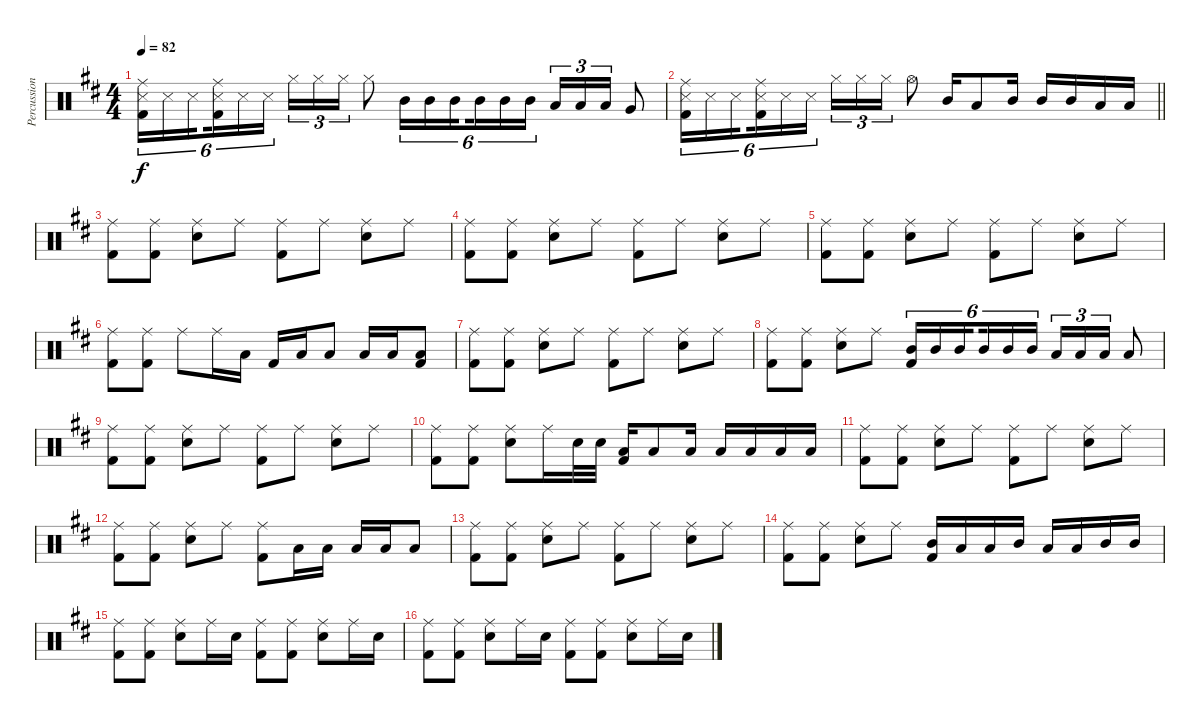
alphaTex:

\track ("Percussion" "Percussion") {instrument percussion}
\staff {score}
\articulation defaults
\ts (4 4)
\tempo 82
\clef neutral
\ks d
("Snare (side stick) 3" "Kick (hit) 2" "Ride (middle)").16{tu (6 4) dy f} "Snare (side stick) 3".16{tu (6 4)} "Snare (side stick) 3".16{tu (6 4) beam splitsecondary} ("Snare (side stick) 3" "Kick (hit) 2" "Ride (middle)").16{tu (6 4)} "Snare (side stick) 3".16{tu (6 4)} "Snare (side stick) 3".16{tu (6 4)} "Hi-Hat (closed)".16{tu (3 2)} "Hi-Hat (closed)".16{tu (3 2)} "Hi-Hat (closed)".16{tu (3 2)} "Hi-Hat (closed)".8 "Mid Tom (hit)".16{tu (6 4)} "Mid Tom (hit)".16{tu (6 4)} "Mid Tom (hit)".16{tu (6 4) beam splitsecondary} "Mid Tom (hit)".16{tu (6 4)} "Mid Tom (hit)".16{tu (6 4)} "Mid Tom (hit)".16{tu (6 4)} "Low Tom (hit)".16{tu (3 2)} "Low Tom (hit)".16{tu (3 2)} "Low Tom (hit)".16{tu (3 2)} "Very Low Tom (hit)".8 |
\barLineRight lightlight
("Snare (side stick) 3" "Kick (hit) 2" "Ride (middle)").16{tu (6 4)} "Snare (side stick) 3".16{tu (6 4)} "Snare (side stick) 3".16{tu (6 4) beam splitsecondary} ("Snare (side stick) 3" "Kick (hit) 2" "Ride (middle)").16{tu (6 4)} "Snare (side stick) 3".16{tu (6 4)} "Snare (side stick) 3".16{tu (6 4)} "Hi-Hat (closed)".16{tu (3 2)} "Hi-Hat (closed)".16{tu (3 2)} "Hi-Hat (closed)".16{tu (3 2)} "Hi-Hat (open)".8 "Mid Tom (hit)".16 "Low Floor Tom (hit)".8 "Mid Tom (hit)".16 "Mid Tom (hit)".16 "Mid Tom (hit)".16 "Low Floor Tom (hit)".16 "Low Floor Tom (hit)".16 |
("Ride (middle)" "Kick (hit) 2").8 ("Ride (middle)" "Kick (hit) 2").8 ("Ride (middle)" "Snare (hit) 2").8 "Ride (middle)".8 ("Ride (middle)" "Kick (hit) 2").8 "Ride (middle)".8 ("Ride (middle)" "Snare (hit) 2").8 "Ride (middle)".8 |
("Ride (middle)" "Kick (hit) 2").8 ("Ride (middle)" "Kick (hit) 2").8 ("Ride (middle)" "Snare (hit) 2").8 "Ride (middle)".8 ("Ride (middle)" "Kick (hit) 2").8 "Ride (middle)".8 ("Ride (middle)" "Snare (hit) 2").8 "Ride (middle)".8 |
("Ride (middle)" "Kick (hit) 2").8 ("Ride (middle)" "Kick (hit) 2").8 ("Ride (middle)" "Snare (hit) 2").8 "Ride (middle)".8 ("Ride (middle)" "Kick (hit) 2").8 "Ride (middle)".8 ("Ride (middle)" "Snare (hit) 2").8 "Ride (middle)".8 |
("Ride (middle)" "Kick (hit) 2").8 ("Ride (middle)" "Kick (hit) 2").8 "Ride (middle)".8 "Ride (middle)".16 "Low Floor Tom (hit)".16 "Kick (hit) 2".16 "Low Floor Tom (hit)".16 "Low Floor Tom (hit)".8 "Low Floor Tom (hit)".16 "Low Floor Tom (hit)".16 ("Low Floor Tom (hit)" "Kick (hit) 2").8 |
("Ride (middle)" "Kick (hit) 2").8 ("Ride (middle)" "Kick (hit) 2").8 ("Ride (middle)" "Snare (hit) 2").8 "Ride (middle)".8 ("Ride (middle)" "Kick (hit) 2").8 "Ride (middle)".8 ("Ride (middle)" "Snare (hit) 2").8 "Ride (middle)".8 |
("Ride (middle)" "Kick (hit) 2").8 ("Ride (middle)" "Kick (hit) 2").8 ("Ride (middle)" "Snare (hit) 2").8 "Ride (middle)".8 ("Mid Tom (hit)" "Kick (hit) 2").16{tu (6 4)} "Mid Tom (hit)".16{tu (6 4)} "Mid Tom (hit)".16{tu (6 4) beam splitsecondary} "Mid Tom (hit)".16{tu (6 4)} "Mid Tom (hit)".16{tu (6 4)} "Mid Tom (hit)".16{tu (6 4)} "Low Floor Tom (hit)".16{tu (3 2)} "Low Floor Tom (hit)".16{tu (3 2)} "Low Floor Tom (hit)".16{tu (3 2)} "Low Floor Tom (hit)".8 |
("Ride (middle)" "Kick (hit) 2").8 ("Ride (middle)" "Kick (hit) 2").8 ("Ride (middle)" "Snare (hit) 2").8 "Ride (middle)".8 ("Ride (middle)" "Kick (hit) 2").8 "Ride (middle)".8 ("Ride (middle)" "Snare (hit) 2").8 "Ride (middle)".8 |
("Ride (middle)" "Kick (hit) 2").8 ("Ride (middle)" "Kick (hit) 2").8 ("Ride (middle)" "Snare (hit) 2").8 "Ride (middle)".16 "Snare (hit) 2".32 "Snare (hit) 2".32 ("Low Floor Tom (hit)" "Kick (hit) 2").16 "Low Floor Tom (hit)".8 "Low Floor Tom (hit)".16 "Low Floor Tom (hit)".16 "Low Floor Tom (hit)".16 "Low Floor Tom (hit)".16 "Low Floor Tom (hit)".16 |
("Ride (middle)" "Kick (hit) 2").8 ("Ride (middle)" "Kick (hit) 2").8 ("Ride (middle)" "Snare (hit) 2").8 "Ride (middle)".8 ("Ride (middle)" "Kick (hit) 2").8 "Ride (middle)".8 ("Ride (middle)" "Snare (hit) 2").8 "Ride (middle)".8 |
("Ride (middle)" "Kick (hit) 2").8 ("Ride (middle)" "Kick (hit) 2").8 ("Ride (middle)" "Snare (hit) 2").8 "Ride (middle)".8 ("Ride (middle)" "Kick (hit) 2").8 "Low Floor Tom (hit)".16 "Low Floor Tom (hit)".16 "Low Floor Tom (hit)".16 "Low Floor Tom (hit)".16 "Low Floor Tom (hit)".8 |
("Ride (middle)" "Kick (hit) 2").8 ("Ride (middle)" "Kick (hit) 2").8 ("Ride (middle)" "Snare (hit) 2").8 "Ride (middle)".8 ("Ride (middle)" "Kick (hit) 2").8 "Ride (middle)".8 ("Ride (middle)" "Snare (hit) 2").8 "Ride (middle)".8 |
("Ride (middle)" "Kick (hit) 2").8 ("Ride (middle)" "Kick (hit) 2").8 ("Ride (middle)" "Snare (hit) 2").8 "Ride (middle)".8 ("Mid Tom (hit)" "Kick (hit) 2").16 "Low Floor Tom (hit)".16 "Low Floor Tom (hit)".16 "Mid Tom (hit)".16 "Low Floor Tom (hit)".16 "Low Floor Tom (hit)".16 "Mid Tom (hit)".16 "Mid Tom (hit)".16 |
("Ride (middle)" "Kick (hit) 2").8 ("Ride (middle)" "Kick (hit) 2").8 ("Ride (middle)" "Snare (hit) 2").8 "Ride (middle)".16 "Snare (hit) 2".16 ("Ride (middle)" "Kick (hit) 2").8 ("Ride (middle)" "Kick (hit) 2").8 ("Ride (middle)" "Snare (hit) 2").8 "Ride (middle)".16 "Snare (hit) 2".16 |
("Ride (middle)" "Kick (hit) 2").8 ("Ride (middle)" "Kick (hit) 2").8 ("Ride (middle)" "Snare (hit) 2").8 "Ride (middle)".16 "Snare (hit) 2".16 ("Ride (middle)" "Kick (hit) 2").8 ("Ride (middle)" "Kick (hit) 2").8 ("Ride (middle)" "Snare (hit) 2").8 "Ride (middle)".16 "Snare (hit) 2".16
